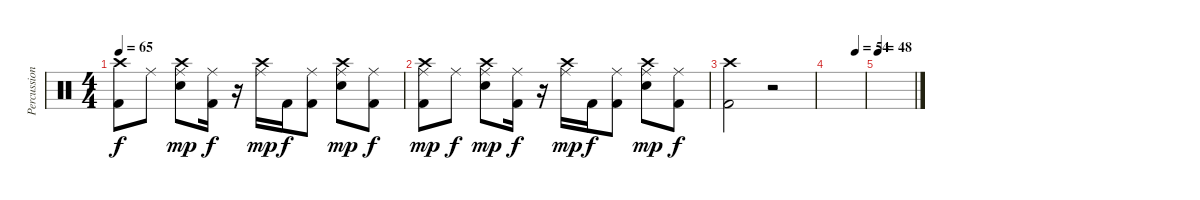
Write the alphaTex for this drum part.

\track ("Percussion" "Percussion") {instrument percussion}
\staff {score}
\articulation defaults
\ts (4 4)
\tempo 65
\clef neutral
\ks c
("Crash high (hit)" "Kick (hit) 2").8{dy f} "Ride (middle)".8 ("Crash high (hit)" "Ride (middle)" "Electric Snare (hit)").8{dy mp} ("Ride (middle)" "Kick (hit) 2").16{dy f} r.16 ("Crash high (hit)" "Ride (middle)").16{dy mp} "Kick (hit) 2".16{dy f} ("Ride (middle)" "Kick (hit) 2").8 ("Crash high (hit)" "Ride (middle)" "Electric Snare (hit)").8{dy mp} ("Ride (middle)" "Kick (hit) 2").8{dy f} |
("Crash high (hit)" "Ride (middle)" "Kick (hit) 2").8{dy mp} "Ride (middle)".8{dy f} ("Crash high (hit)" "Ride (middle)" "Electric Snare (hit)").8{dy mp} ("Ride (middle)" "Kick (hit) 2").16{dy f} r.16 ("Crash high (hit)" "Ride (middle)").16{dy mp} "Kick (hit) 2".16{dy f} ("Ride (middle)" "Kick (hit) 2").8 ("Crash high (hit)" "Ride (middle)" "Electric Snare (hit)").8{dy mp} ("Ride (middle)" "Kick (hit) 2").8{dy f} |
("Crash high (hit)" "Kick (hit) 2").2 r.2 |
\tempo (54 0.75)
|
\tempo 48
